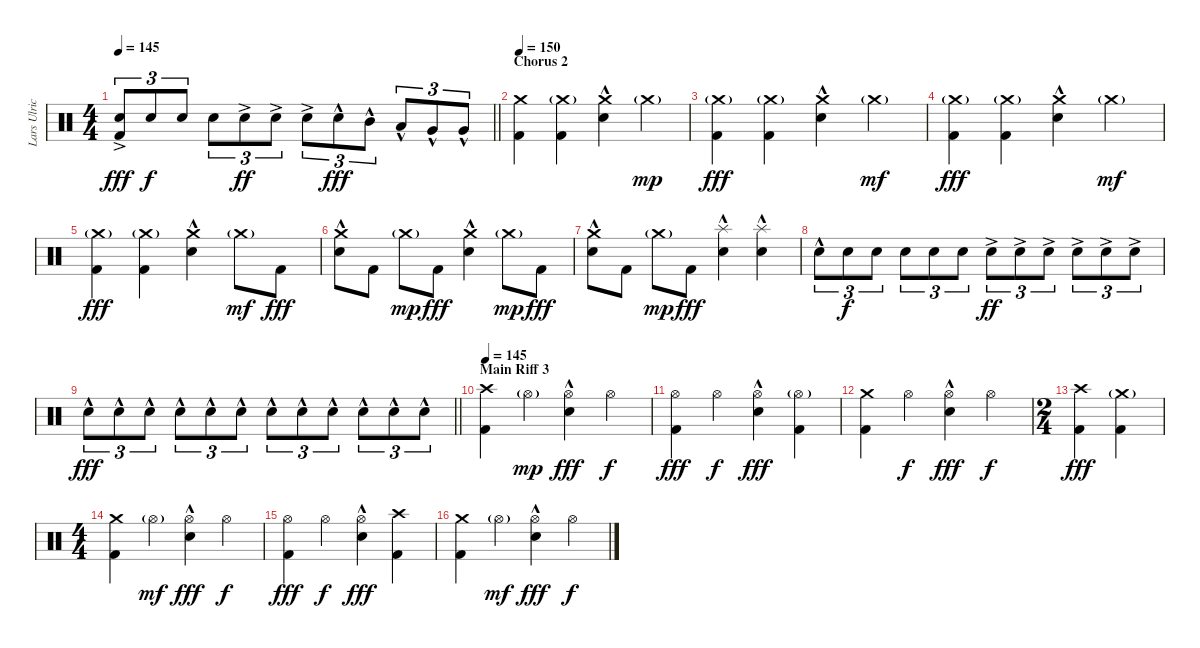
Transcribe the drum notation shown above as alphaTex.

\track ("Lars Ulrich (Drums)" "Lars Ulric") {instrument percussion}
\staff {score}
\articulation defaults
\ts (4 4)
\tempo 145
\clef neutral
\barLineRight lightlight
\ks c
("Electric Snare (hit)"{ac} "Kick (hit) 2").8{tu (3 2) dy fff} "Electric Snare (hit)".8{tu (3 2) dy f} "Electric Snare (hit)".8{tu (3 2)} "Electric Snare (hit)".8{tu (3 2)} "Electric Snare (hit)"{ac}.8{tu (3 2) dy ff} "Electric Snare (hit)"{ac}.8{tu (3 2)} "Electric Snare (hit)"{ac}.8{tu (3 2)} "Electric Snare (hit)"{hac}.8{tu (3 2) dy fff} "Mid Tom (hit)"{hac}.8{tu (3 2)} "Low Tom (hit)"{hac}.8{tu (3 2)} "Very Low Tom (hit)"{hac}.8{tu (3 2)} "Very Low Tom (hit)"{hac}.8{tu (3 2)} |
\section ("" "Chorus 2")
\tempo 150
("Crash medium (hit)" "Kick (hit) 2").4 ("Crash medium (hit)"{g} "Kick (hit) 2").4 ("Crash medium (hit)" "Electric Snare (hit)"{hac}).4 "Crash medium (hit)"{g}.4{dy mp} |
("Crash medium (hit)"{g} "Kick (hit) 2").4{dy fff} ("Crash medium (hit)"{g} "Kick (hit) 2").4 ("Crash medium (hit)" "Electric Snare (hit)"{hac}).4 "Crash medium (hit)"{g}.4{dy mf} |
("Crash medium (hit)"{g} "Kick (hit) 2").4{dy fff} ("Crash medium (hit)"{g} "Kick (hit) 2").4 ("Crash medium (hit)" "Electric Snare (hit)"{hac}).4 "Crash medium (hit)"{g}.4{dy mf} |
("Crash medium (hit)"{g} "Kick (hit) 2").4{dy fff} ("Crash medium (hit)"{g} "Kick (hit) 2").4 ("Crash medium (hit)" "Electric Snare (hit)"{hac}).4 "Crash medium (hit)"{g}.8{dy mf} "Kick (hit) 2".8{dy fff} |
("Crash medium (hit)" "Electric Snare (hit)"{hac}).8 "Kick (hit) 2".8 "Crash medium (hit)"{g}.8{dy mp} "Kick (hit) 2".8{dy fff} ("Crash medium (hit)" "Electric Snare (hit)"{hac}).4 "Crash medium (hit)"{g}.8{dy mp} "Kick (hit) 2".8{dy fff} |
("Crash medium (hit)" "Electric Snare (hit)"{hac}).8 "Kick (hit) 2".8 "Crash medium (hit)"{g}.8{dy mp} "Kick (hit) 2".8{dy fff} ("Splash (hit)" "Electric Snare (hit)"{hac}).4 ("Splash (hit)" "Electric Snare (hit)"{hac}).4 |
"Electric Snare (hit)"{hac}.8{tu (3 2)} "Electric Snare (hit)".8{tu (3 2) dy f} "Electric Snare (hit)".8{tu (3 2)} "Electric Snare (hit)".8{tu (3 2)} "Electric Snare (hit)".8{tu (3 2)} "Electric Snare (hit)".8{tu (3 2)} "Electric Snare (hit)"{ac}.8{tu (3 2) dy ff} "Electric Snare (hit)"{ac}.8{tu (3 2)} "Electric Snare (hit)"{ac}.8{tu (3 2)} "Electric Snare (hit)"{ac}.8{tu (3 2)} "Electric Snare (hit)"{ac}.8{tu (3 2)} "Electric Snare (hit)"{ac}.8{tu (3 2)} |
\barLineRight lightlight "Electric Snare (hit)"{hac}.8{tu (3 2) dy fff} "Electric Snare (hit)"{hac}.8{tu (3 2)} "Electric Snare (hit)"{hac}.8{tu (3 2)} "Electric Snare (hit)"{hac}.8{tu (3 2)} "Electric Snare (hit)"{hac}.8{tu (3 2)} "Electric Snare (hit)"{hac}.8{tu (3 2)} "Electric Snare (hit)"{hac}.8{tu (3 2)} "Electric Snare (hit)"{hac}.8{tu (3 2)} "Electric Snare (hit)"{hac}.8{tu (3 2)} "Electric Snare (hit)"{hac}.8{tu (3 2)} "Electric Snare (hit)"{hac}.8{tu (3 2)} "Electric Snare (hit)"{hac}.8{tu (3 2)}
|
\section ("" "Main Riff 3")
\tempo 145
("Crash high (hit)" "Kick (hit) 2").4 "Hi-Hat (open)"{g}.4{dy mp} ("Hi-Hat (open)"{hac} "Electric Snare (hit)"{hac}).4{dy fff} "Hi-Hat (open)".4{dy f} |
("Hi-Hat (open)" "Kick (hit) 2").4{dy fff} "Hi-Hat (open)".4{dy f} ("Hi-Hat (open)"{hac} "Electric Snare (hit)"{hac}).4{dy fff} ("Hi-Hat (open)"{g} "Kick (hit) 2").4 |
("Crash medium (hit)" "Kick (hit) 2").4 "Hi-Hat (open)".4{dy f} ("Hi-Hat (open)"{hac} "Electric Snare (hit)"{hac}).4{dy fff} "Hi-Hat (open)".4{dy f} |
\ts (2 4)
("Crash high (hit)" "Kick (hit) 2").4{dy fff} ("Crash medium (hit)"{g} "Kick (hit) 2").4 |
\ts (4 4)
("Crash medium (hit)" "Kick (hit) 2").4 "Hi-Hat (open)"{g}.4{dy mf} ("Hi-Hat (open)"{hac} "Electric Snare (hit)"{hac}).4{dy fff} "Hi-Hat (open)".4{dy f} |
("Hi-Hat (open)" "Kick (hit) 2").4{dy fff} "Hi-Hat (open)".4{dy f} ("Hi-Hat (open)"{hac} "Electric Snare (hit)"{hac}).4{dy fff} ("Crash high (hit)" "Kick (hit) 2").4 |
("Crash medium (hit)" "Kick (hit) 2").4 "Hi-Hat (open)"{g}.4{dy mf} ("Hi-Hat (open)"{hac} "Electric Snare (hit)"{hac}).4{dy fff} "Hi-Hat (open)".4{dy f}
